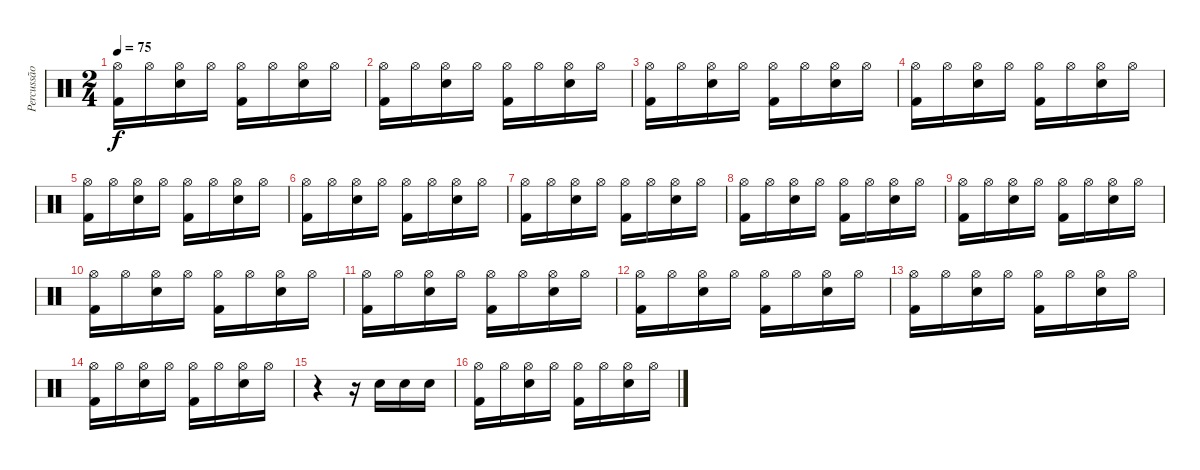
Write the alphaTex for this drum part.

\track ("Percussão" "Percussão") {instrument percussion}
\staff {score}
\articulation defaults
\ts (2 4)
\tempo 75
\clef neutral
\ks c
("Hi-Hat (open)" "Kick (hit) 2").16{dy f} "Hi-Hat (open)".16 ("Hi-Hat (open)" "Snare (hit) 2").16 "Hi-Hat (open)".16 ("Hi-Hat (open)" "Kick (hit) 2").16 "Hi-Hat (open)".16 ("Hi-Hat (open)" "Snare (hit) 2").16 "Hi-Hat (open)".16 |
("Hi-Hat (open)" "Kick (hit) 2").16 "Hi-Hat (open)".16 ("Hi-Hat (open)" "Snare (hit) 2").16 "Hi-Hat (open)".16 ("Hi-Hat (open)" "Kick (hit) 2").16 "Hi-Hat (open)".16 ("Hi-Hat (open)" "Snare (hit) 2").16 "Hi-Hat (open)".16 |
("Hi-Hat (open)" "Kick (hit) 2").16 "Hi-Hat (open)".16 ("Hi-Hat (open)" "Snare (hit) 2").16 "Hi-Hat (open)".16 ("Hi-Hat (open)" "Kick (hit) 2").16 "Hi-Hat (open)".16 ("Hi-Hat (open)" "Snare (hit) 2").16 "Hi-Hat (open)".16 |
("Hi-Hat (open)" "Kick (hit) 2").16 "Hi-Hat (open)".16 ("Hi-Hat (open)" "Snare (hit) 2").16 "Hi-Hat (open)".16 ("Hi-Hat (open)" "Kick (hit) 2").16 "Hi-Hat (open)".16 ("Hi-Hat (open)" "Snare (hit) 2").16 "Hi-Hat (open)".16 |
("Hi-Hat (open)" "Kick (hit) 2").16 "Hi-Hat (open)".16 ("Hi-Hat (open)" "Snare (hit) 2").16 "Hi-Hat (open)".16 ("Hi-Hat (open)" "Kick (hit) 2").16 "Hi-Hat (open)".16 ("Hi-Hat (open)" "Snare (hit) 2").16 "Hi-Hat (open)".16 |
("Hi-Hat (open)" "Kick (hit) 2").16 "Hi-Hat (open)".16 ("Hi-Hat (open)" "Snare (hit) 2").16 "Hi-Hat (open)".16 ("Hi-Hat (open)" "Kick (hit) 2").16 "Hi-Hat (open)".16 ("Hi-Hat (open)" "Snare (hit) 2").16 "Hi-Hat (open)".16 |
("Hi-Hat (open)" "Kick (hit) 2").16 "Hi-Hat (open)".16 ("Hi-Hat (open)" "Snare (hit) 2").16 "Hi-Hat (open)".16 ("Hi-Hat (open)" "Kick (hit) 2").16 "Hi-Hat (open)".16 ("Hi-Hat (open)" "Snare (hit) 2").16 "Hi-Hat (open)".16 |
("Hi-Hat (open)" "Kick (hit) 2").16 "Hi-Hat (open)".16 ("Hi-Hat (open)" "Snare (hit) 2").16 "Hi-Hat (open)".16 ("Hi-Hat (open)" "Kick (hit) 2").16 "Hi-Hat (open)".16 ("Hi-Hat (open)" "Snare (hit) 2").16 "Hi-Hat (open)".16 |
("Hi-Hat (open)" "Kick (hit) 2").16 "Hi-Hat (open)".16 ("Hi-Hat (open)" "Snare (hit) 2").16 "Hi-Hat (open)".16 ("Hi-Hat (open)" "Kick (hit) 2").16 "Hi-Hat (open)".16 ("Hi-Hat (open)" "Snare (hit) 2").16 "Hi-Hat (open)".16 |
("Hi-Hat (open)" "Kick (hit) 2").16 "Hi-Hat (open)".16 ("Hi-Hat (open)" "Snare (hit) 2").16 "Hi-Hat (open)".16 ("Hi-Hat (open)" "Kick (hit) 2").16 "Hi-Hat (open)".16 ("Hi-Hat (open)" "Snare (hit) 2").16 "Hi-Hat (open)".16 |
("Hi-Hat (open)" "Kick (hit) 2").16 "Hi-Hat (open)".16 ("Hi-Hat (open)" "Snare (hit) 2").16 "Hi-Hat (open)".16 ("Hi-Hat (open)" "Kick (hit) 2").16 "Hi-Hat (open)".16 ("Hi-Hat (open)" "Snare (hit) 2").16 "Hi-Hat (open)".16 |
("Hi-Hat (open)" "Kick (hit) 2").16 "Hi-Hat (open)".16 ("Hi-Hat (open)" "Snare (hit) 2").16 "Hi-Hat (open)".16 ("Hi-Hat (open)" "Kick (hit) 2").16 "Hi-Hat (open)".16 ("Hi-Hat (open)" "Snare (hit) 2").16 "Hi-Hat (open)".16 |
("Hi-Hat (open)" "Kick (hit) 2").16 "Hi-Hat (open)".16 ("Hi-Hat (open)" "Snare (hit) 2").16 "Hi-Hat (open)".16 ("Hi-Hat (open)" "Kick (hit) 2").16 "Hi-Hat (open)".16 ("Hi-Hat (open)" "Snare (hit) 2").16 "Hi-Hat (open)".16 |
("Hi-Hat (open)" "Kick (hit) 2").16 "Hi-Hat (open)".16 ("Hi-Hat (open)" "Snare (hit) 2").16 "Hi-Hat (open)".16 ("Hi-Hat (open)" "Kick (hit) 2").16 "Hi-Hat (open)".16 ("Hi-Hat (open)" "Snare (hit) 2").16 "Hi-Hat (open)".16 |
r.4 r.16 "Snare (hit) 2".16 "Snare (hit) 2".16 "Snare (hit) 2".16 |
("Hi-Hat (open)" "Kick (hit) 2").16 "Hi-Hat (open)".16 ("Hi-Hat (open)" "Snare (hit) 2").16 "Hi-Hat (open)".16 ("Hi-Hat (open)" "Kick (hit) 2").16 "Hi-Hat (open)".16 ("Hi-Hat (open)" "Snare (hit) 2").16 "Hi-Hat (open)".16
